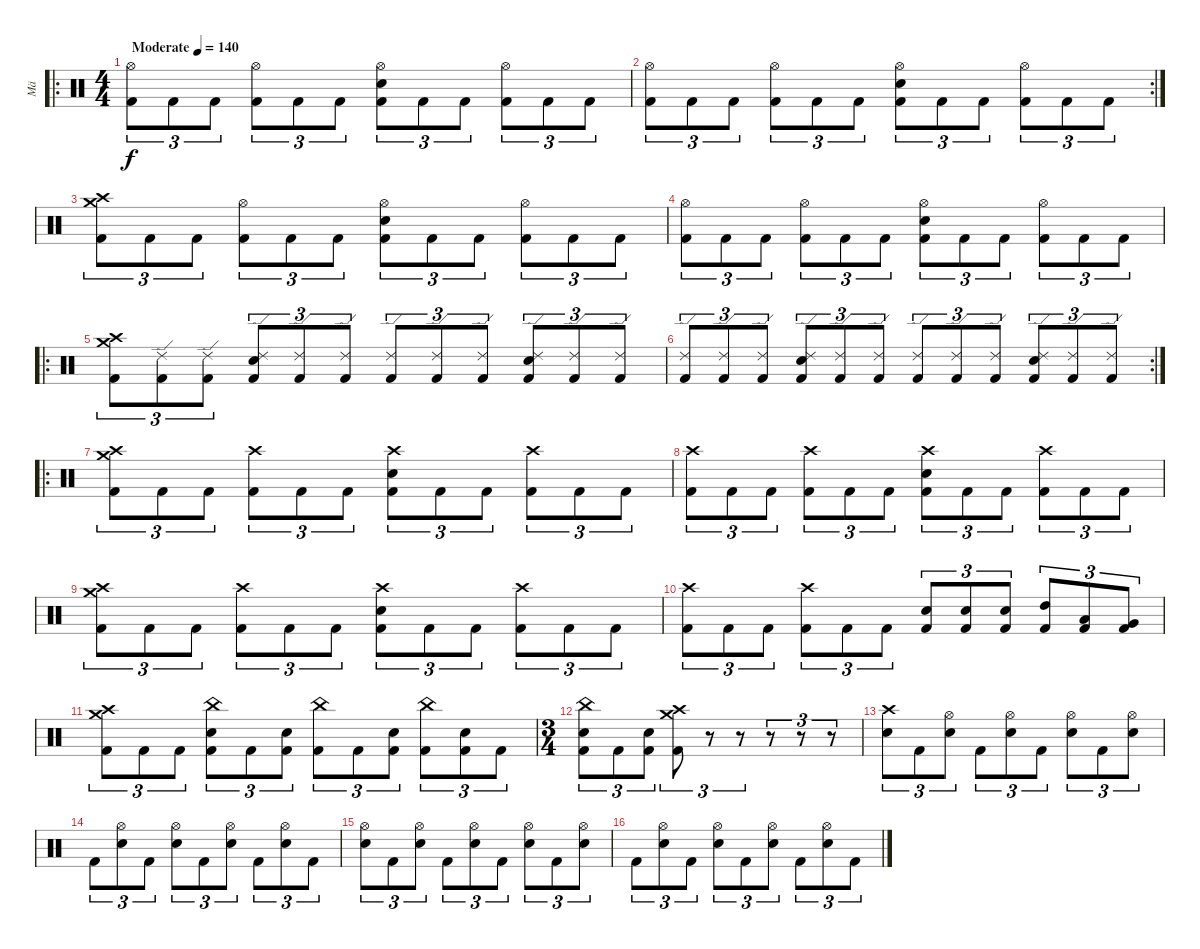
\track ("Mä" "Mä") {instrument percussion}
\staff {score}
\articulation defaults
\ro
\ts (4 4)
\tempo (140 "Moderate")
\clef neutral
\ks c
("Hi-Hat (open)" "Kick (hit) 2").8{tu (3 2) dy f} "Kick (hit) 2".8{tu (3 2)} "Kick (hit) 2".8{tu (3 2)} ("Hi-Hat (open)" "Kick (hit) 2").8{tu (3 2)} "Kick (hit) 2".8{tu (3 2)} "Kick (hit) 2".8{tu (3 2)} ("Hi-Hat (open)" "Snare (hit) 2" "Kick (hit) 2").8{tu (3 2)} "Kick (hit) 2".8{tu (3 2)} "Kick (hit) 2".8{tu (3 2)} ("Hi-Hat (open)" "Kick (hit) 2").8{tu (3 2)} "Kick (hit) 2".8{tu (3 2)} "Kick (hit) 2".8{tu (3 2)} |
\rc 2
("Hi-Hat (open)" "Kick (hit) 2").8{tu (3 2)} "Kick (hit) 2".8{tu (3 2)} "Kick (hit) 2".8{tu (3 2)} ("Hi-Hat (open)" "Kick (hit) 2").8{tu (3 2)} "Kick (hit) 2".8{tu (3 2)} "Kick (hit) 2".8{tu (3 2)} ("Hi-Hat (open)" "Snare (hit) 2" "Kick (hit) 2").8{tu (3 2)} "Kick (hit) 2".8{tu (3 2)} "Kick (hit) 2".8{tu (3 2)} ("Hi-Hat (open)" "Kick (hit) 2").8{tu (3 2)} "Kick (hit) 2".8{tu (3 2)} "Kick (hit) 2".8{tu (3 2)} |
("Crash medium (hit)" "Crash high (hit)" "Kick (hit) 2").8{tu (3 2)} "Kick (hit) 2".8{tu (3 2)} "Kick (hit) 2".8{tu (3 2)} ("Hi-Hat (open)" "Kick (hit) 2").8{tu (3 2)} "Kick (hit) 2".8{tu (3 2)} "Kick (hit) 2".8{tu (3 2)} ("Hi-Hat (open)" "Snare (hit) 2" "Kick (hit) 2").8{tu (3 2)} "Kick (hit) 2".8{tu (3 2)} "Kick (hit) 2".8{tu (3 2)} ("Hi-Hat (open)" "Kick (hit) 2").8{tu (3 2)} "Kick (hit) 2".8{tu (3 2)} "Kick (hit) 2".8{tu (3 2)} |
("Hi-Hat (open)" "Kick (hit) 2").8{tu (3 2)} "Kick (hit) 2".8{tu (3 2)} "Kick (hit) 2".8{tu (3 2)} ("Hi-Hat (open)" "Kick (hit) 2").8{tu (3 2)} "Kick (hit) 2".8{tu (3 2)} "Kick (hit) 2".8{tu (3 2)} ("Hi-Hat (open)" "Snare (hit) 2" "Kick (hit) 2").8{tu (3 2)} "Kick (hit) 2".8{tu (3 2)} "Kick (hit) 2".8{tu (3 2)} ("Hi-Hat (open)" "Kick (hit) 2").8{tu (3 2)} "Kick (hit) 2".8{tu (3 2)} "Kick (hit) 2".8{tu (3 2)} |
\ro
("Crash high (hit)" "Crash medium (hit)" "Kick (hit) 2").8{tu (3 2)} ("Ride (edge) 2" "Kick (hit) 2").8{tu (3 2)} ("Ride (edge) 2" "Kick (hit) 2").8{tu (3 2)} ("Ride (edge) 2" "Snare (hit) 2" "Kick (hit) 2").8{tu (3 2)} ("Ride (edge) 2" "Kick (hit) 2").8{tu (3 2)} ("Ride (edge) 2" "Kick (hit) 2").8{tu (3 2)} ("Ride (edge) 2" "Kick (hit) 2").8{tu (3 2)} ("Ride (edge) 2" "Kick (hit) 2").8{tu (3 2)} ("Ride (edge) 2" "Kick (hit) 2").8{tu (3 2)} ("Ride (edge) 2" "Snare (hit) 2" "Kick (hit) 2").8{tu (3 2)} ("Ride (edge) 2" "Kick (hit) 2").8{tu (3 2)} ("Ride (edge) 2" "Kick (hit) 2").8{tu (3 2)} |
\rc 2
("Ride (edge) 2" "Kick (hit) 2").8{tu (3 2)} ("Ride (edge) 2" "Kick (hit) 2").8{tu (3 2)} ("Ride (edge) 2" "Kick (hit) 2").8{tu (3 2)} ("Ride (edge) 2" "Snare (hit) 2" "Kick (hit) 2").8{tu (3 2)} ("Ride (edge) 2" "Kick (hit) 2").8{tu (3 2)} ("Ride (edge) 2" "Kick (hit) 2").8{tu (3 2)} ("Ride (edge) 2" "Kick (hit) 2").8{tu (3 2)} ("Ride (edge) 2" "Kick (hit) 2").8{tu (3 2)} ("Ride (edge) 2" "Kick (hit) 2").8{tu (3 2)} ("Ride (edge) 2" "Snare (hit) 2" "Kick (hit) 2").8{tu (3 2)} ("Ride (edge) 2" "Kick (hit) 2").8{tu (3 2)} ("Ride (edge) 2" "Kick (hit) 2").8{tu (3 2)} |
\ro
("Crash high (hit)" "Crash medium (hit)" "Kick (hit) 2").8{tu (3 2)} "Kick (hit) 2".8{tu (3 2)} "Kick (hit) 2".8{tu (3 2)} ("Crash high (hit)" "Kick (hit) 2").8{tu (3 2)} "Kick (hit) 2".8{tu (3 2)} "Kick (hit) 2".8{tu (3 2)} ("Crash high (hit)" "Snare (hit) 2" "Kick (hit) 2").8{tu (3 2)} "Kick (hit) 2".8{tu (3 2)} "Kick (hit) 2".8{tu (3 2)} ("Crash high (hit)" "Kick (hit) 2").8{tu (3 2)} "Kick (hit) 2".8{tu (3 2)} "Kick (hit) 2".8{tu (3 2)} |
("Crash high (hit)" "Kick (hit) 2").8{tu (3 2)} "Kick (hit) 2".8{tu (3 2)} "Kick (hit) 2".8{tu (3 2)} ("Crash high (hit)" "Kick (hit) 2").8{tu (3 2)} "Kick (hit) 2".8{tu (3 2)} "Kick (hit) 2".8{tu (3 2)} ("Crash high (hit)" "Snare (hit) 2" "Kick (hit) 2").8{tu (3 2)} "Kick (hit) 2".8{tu (3 2)} "Kick (hit) 2".8{tu (3 2)} ("Crash high (hit)" "Kick (hit) 2").8{tu (3 2)} "Kick (hit) 2".8{tu (3 2)} "Kick (hit) 2".8{tu (3 2)} |
("Crash high (hit)" "Crash medium (hit)" "Kick (hit) 2").8{tu (3 2)} "Kick (hit) 2".8{tu (3 2)} "Kick (hit) 2".8{tu (3 2)} ("Crash high (hit)" "Kick (hit) 2").8{tu (3 2)} "Kick (hit) 2".8{tu (3 2)} "Kick (hit) 2".8{tu (3 2)} ("Crash high (hit)" "Snare (hit) 2" "Kick (hit) 2").8{tu (3 2)} "Kick (hit) 2".8{tu (3 2)} "Kick (hit) 2".8{tu (3 2)} ("Crash high (hit)" "Kick (hit) 2").8{tu (3 2)} "Kick (hit) 2".8{tu (3 2)} "Kick (hit) 2".8{tu (3 2)} |
("Crash high (hit)" "Kick (hit) 2").8{tu (3 2)} "Kick (hit) 2".8{tu (3 2)} "Kick (hit) 2".8{tu (3 2)} ("Crash high (hit)" "Kick (hit) 2").8{tu (3 2)} "Kick (hit) 2".8{tu (3 2)} "Kick (hit) 2".8{tu (3 2)} ("Snare (hit) 2" "Kick (hit) 2").8{tu (3 2)} ("Snare (hit) 2" "Kick (hit) 2").8{tu (3 2)} ("Snare (hit) 2" "Kick (hit) 2").8{tu (3 2)} ("High Tom (hit)" "Kick (hit) 2").8{tu (3 2)} ("Low Tom (hit)" "Kick (hit) 2").8{tu (3 2)} ("Very Low Tom (hit)" "Kick (hit) 2").8{tu (3 2)} |
("Crash high (hit)" "Crash medium (hit)" "Kick (hit) 2").8{tu (3 2)} "Kick (hit) 2".8{tu (3 2)} "Kick (hit) 2".8{tu (3 2)} ("China (hit)" "Snare (hit) 2" "Kick (hit) 2").8{tu (3 2)} "Kick (hit) 2".8{tu (3 2)} ("Snare (hit) 2" "Kick (hit) 2").8{tu (3 2)} ("China (hit)" "Kick (hit) 2").8{tu (3 2)} "Kick (hit) 2".8{tu (3 2)} ("Snare (hit) 2" "Kick (hit) 2").8{tu (3 2)} ("China (hit)" "Kick (hit) 2").8{tu (3 2)} ("Snare (hit) 2" "Kick (hit) 2").8{tu (3 2)} "Kick (hit) 2".8{tu (3 2)} |
\ts (3 4)
("China (hit)" "Snare (hit) 2" "Kick (hit) 2").8{tu (3 2)} "Kick (hit) 2".8{tu (3 2)} ("Snare (hit) 2" "Kick (hit) 2").8{tu (3 2)} ("Crash medium (hit)" "Crash high (hit)" "Kick (hit) 2").8{tu (3 2)} r.8{tu (3 2)} r.8{tu (3 2)} r.8{tu (3 2)} r.8{tu (3 2)} r.8{tu (3 2)} |
("Crash high (hit)" "Snare (hit) 2").8{tu (3 2)} "Kick (hit) 2".8{tu (3 2)} ("Hi-Hat (open)" "Snare (hit) 2").8{tu (3 2)} "Kick (hit) 2".8{tu (3 2)} ("Hi-Hat (open)" "Snare (hit) 2").8{tu (3 2)} "Kick (hit) 2".8{tu (3 2)} ("Hi-Hat (open)" "Snare (hit) 2").8{tu (3 2)} "Kick (hit) 2".8{tu (3 2)} ("Hi-Hat (open)" "Snare (hit) 2").8{tu (3 2)} |
"Kick (hit) 2".8{tu (3 2)} ("Hi-Hat (open)" "Snare (hit) 2").8{tu (3 2)} "Kick (hit) 2".8{tu (3 2)} ("Hi-Hat (open)" "Snare (hit) 2").8{tu (3 2)} "Kick (hit) 2".8{tu (3 2)} ("Hi-Hat (open)" "Snare (hit) 2").8{tu (3 2)} "Kick (hit) 2".8{tu (3 2)} ("Hi-Hat (open)" "Snare (hit) 2").8{tu (3 2)} "Kick (hit) 2".8{tu (3 2)} |
("Hi-Hat (open)" "Snare (hit) 2").8{tu (3 2)} "Kick (hit) 2".8{tu (3 2)} ("Hi-Hat (open)" "Snare (hit) 2").8{tu (3 2)} "Kick (hit) 2".8{tu (3 2)} ("Hi-Hat (open)" "Snare (hit) 2").8{tu (3 2)} "Kick (hit) 2".8{tu (3 2)} ("Hi-Hat (open)" "Snare (hit) 2").8{tu (3 2)} "Kick (hit) 2".8{tu (3 2)} ("Hi-Hat (open)" "Snare (hit) 2").8{tu (3 2)} |
"Kick (hit) 2".8{tu (3 2)} ("Hi-Hat (open)" "Snare (hit) 2").8{tu (3 2)} "Kick (hit) 2".8{tu (3 2)} ("Hi-Hat (open)" "Snare (hit) 2").8{tu (3 2)} "Kick (hit) 2".8{tu (3 2)} ("Hi-Hat (open)" "Snare (hit) 2").8{tu (3 2)} "Kick (hit) 2".8{tu (3 2)} ("Hi-Hat (open)" "Snare (hit) 2").8{tu (3 2)} "Kick (hit) 2".8{tu (3 2)}
